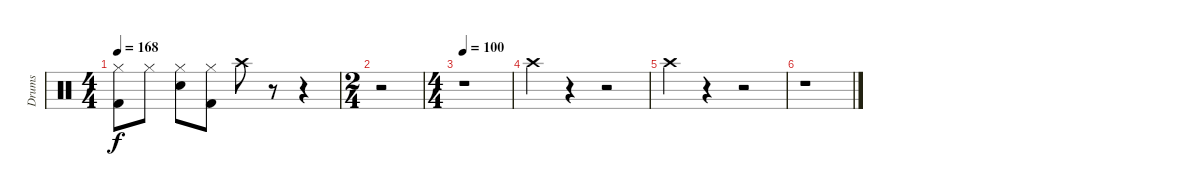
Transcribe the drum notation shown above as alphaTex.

\track ("Drums" "Drums") {instrument percussion}
\staff {score}
\articulation defaults
\ts (4 4)
\tempo 168
\clef neutral
\ks c
("Kick (hit) 2" "Hi-Hat (closed)").8{dy f} "Hi-Hat (closed)".8 ("Snare (hit) 2" "Hi-Hat (closed)").8 ("Kick (hit) 2" "Hi-Hat (closed)").8 "Crash high (hit)".8 r.8 r.4 |
\ts (2 4)
r.2 |
\ts (4 4)
\tempo 100
r.1 |
"Crash high (hit)".4 r.4 r.2 |
"Crash high (hit)".4 r.4 r.2 |
r.1
